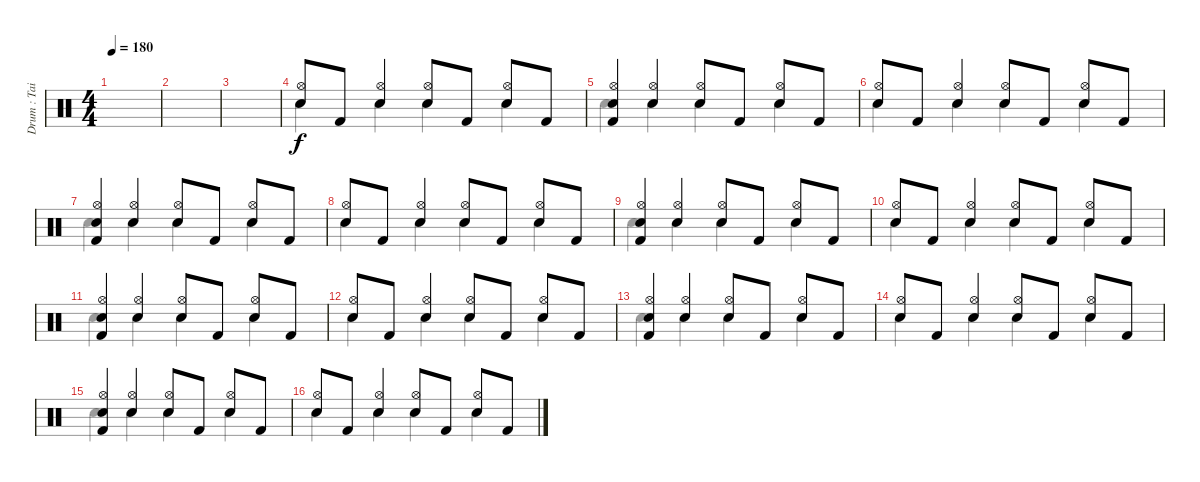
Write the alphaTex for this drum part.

\track ("Drum : Tainaka Ritsu - Chan" "Drum : Tai") {instrument percussion}
\staff {score}
\articulation defaults
\voice
\ts (4 4)
\tempo 180
\clef neutral
\ks c
|
|
|
("Hi-Hat (open)" "Electric Snare (hit)").8 "Kick (hit) 2".8 ("Hi-Hat (open)" "Electric Snare (hit)").4 ("Hi-Hat (open)" "Electric Snare (hit)").8 "Kick (hit) 2".8 ("Hi-Hat (open)" "Electric Snare (hit)").8 "Kick (hit) 2".8 |
("Hi-Hat (open)" "Electric Snare (hit)" "Kick (hit) 2").4 ("Hi-Hat (open)" "Electric Snare (hit)").4 ("Hi-Hat (open)" "Electric Snare (hit)").8 "Kick (hit) 2".8 ("Hi-Hat (open)" "Electric Snare (hit)").8 "Kick (hit) 2".8 |
("Hi-Hat (open)" "Electric Snare (hit)").8 "Kick (hit) 2".8 ("Hi-Hat (open)" "Electric Snare (hit)").4 ("Hi-Hat (open)" "Electric Snare (hit)").8 "Kick (hit) 2".8 ("Hi-Hat (open)" "Electric Snare (hit)").8 "Kick (hit) 2".8 |
("Hi-Hat (open)" "Electric Snare (hit)" "Kick (hit) 2").4 ("Hi-Hat (open)" "Electric Snare (hit)").4 ("Hi-Hat (open)" "Electric Snare (hit)").8 "Kick (hit) 2".8 ("Hi-Hat (open)" "Electric Snare (hit)").8 "Kick (hit) 2".8 |
("Hi-Hat (open)" "Electric Snare (hit)").8 "Kick (hit) 2".8 ("Hi-Hat (open)" "Electric Snare (hit)").4 ("Hi-Hat (open)" "Electric Snare (hit)").8 "Kick (hit) 2".8 ("Hi-Hat (open)" "Electric Snare (hit)").8 "Kick (hit) 2".8 |
("Hi-Hat (open)" "Electric Snare (hit)" "Kick (hit) 2").4 ("Hi-Hat (open)" "Electric Snare (hit)").4 ("Hi-Hat (open)" "Electric Snare (hit)").8 "Kick (hit) 2".8 ("Hi-Hat (open)" "Electric Snare (hit)").8 "Kick (hit) 2".8 |
("Hi-Hat (open)" "Electric Snare (hit)").8 "Kick (hit) 2".8 ("Hi-Hat (open)" "Electric Snare (hit)").4 ("Hi-Hat (open)" "Electric Snare (hit)").8 "Kick (hit) 2".8 ("Hi-Hat (open)" "Electric Snare (hit)").8 "Kick (hit) 2".8 |
("Hi-Hat (open)" "Electric Snare (hit)" "Kick (hit) 2").4 ("Hi-Hat (open)" "Electric Snare (hit)").4 ("Hi-Hat (open)" "Electric Snare (hit)").8 "Kick (hit) 2".8 ("Hi-Hat (open)" "Electric Snare (hit)").8 "Kick (hit) 2".8 |
("Hi-Hat (open)" "Electric Snare (hit)").8 "Kick (hit) 2".8 ("Hi-Hat (open)" "Electric Snare (hit)").4 ("Hi-Hat (open)" "Electric Snare (hit)").8 "Kick (hit) 2".8 ("Hi-Hat (open)" "Electric Snare (hit)").8 "Kick (hit) 2".8 |
("Hi-Hat (open)" "Electric Snare (hit)" "Kick (hit) 2").4 ("Hi-Hat (open)" "Electric Snare (hit)").4 ("Hi-Hat (open)" "Electric Snare (hit)").8 "Kick (hit) 2".8 ("Hi-Hat (open)" "Electric Snare (hit)").8 "Kick (hit) 2".8 |
("Hi-Hat (open)" "Electric Snare (hit)").8 "Kick (hit) 2".8 ("Hi-Hat (open)" "Electric Snare (hit)").4 ("Hi-Hat (open)" "Electric Snare (hit)").8 "Kick (hit) 2".8 ("Hi-Hat (open)" "Electric Snare (hit)").8 "Kick (hit) 2".8 |
("Hi-Hat (open)" "Electric Snare (hit)" "Kick (hit) 2").4 ("Hi-Hat (open)" "Electric Snare (hit)").4 ("Hi-Hat (open)" "Electric Snare (hit)").8 "Kick (hit) 2".8 ("Hi-Hat (open)" "Electric Snare (hit)").8 "Kick (hit) 2".8 |
("Hi-Hat (open)" "Electric Snare (hit)").8 "Kick (hit) 2".8 ("Hi-Hat (open)" "Electric Snare (hit)").4 ("Hi-Hat (open)" "Electric Snare (hit)").8 "Kick (hit) 2".8 ("Hi-Hat (open)" "Electric Snare (hit)").8 "Kick (hit) 2".8
\voice
\clef neutral
\ottava regular
\simile none
\ks c
|
|
|
"Hand Clap (hit)".4{dy f} "Hand Clap (hit)".4 "Hand Clap (hit)".4 "Hand Clap (hit)".4 |
"Hand Clap (hit)".4 "Hand Clap (hit)".4 "Hand Clap (hit)".4 "Hand Clap (hit)".4 |
"Hand Clap (hit)".4 "Hand Clap (hit)".4 "Hand Clap (hit)".4 "Hand Clap (hit)".4 |
"Hand Clap (hit)".4 "Hand Clap (hit)".4 "Hand Clap (hit)".4 "Hand Clap (hit)".4 |
"Hand Clap (hit)".4 "Hand Clap (hit)".4 "Hand Clap (hit)".4 "Hand Clap (hit)".4 |
"Hand Clap (hit)".4 "Hand Clap (hit)".4 "Hand Clap (hit)".4 "Hand Clap (hit)".4 |
"Hand Clap (hit)".4 "Hand Clap (hit)".4 "Hand Clap (hit)".4 "Hand Clap (hit)".4 |
"Hand Clap (hit)".4 "Hand Clap (hit)".4 "Hand Clap (hit)".4 "Hand Clap (hit)".4 |
"Hand Clap (hit)".4 "Hand Clap (hit)".4 "Hand Clap (hit)".4 "Hand Clap (hit)".4 |
"Hand Clap (hit)".4 "Hand Clap (hit)".4 "Hand Clap (hit)".4 "Hand Clap (hit)".4 |
"Hand Clap (hit)".4 "Hand Clap (hit)".4 "Hand Clap (hit)".4 "Hand Clap (hit)".4 |
"Hand Clap (hit)".4 "Hand Clap (hit)".4 "Hand Clap (hit)".4 "Hand Clap (hit)".4 |
"Hand Clap (hit)".4 "Hand Clap (hit)".4 "Hand Clap (hit)".4 "Hand Clap (hit)".4
